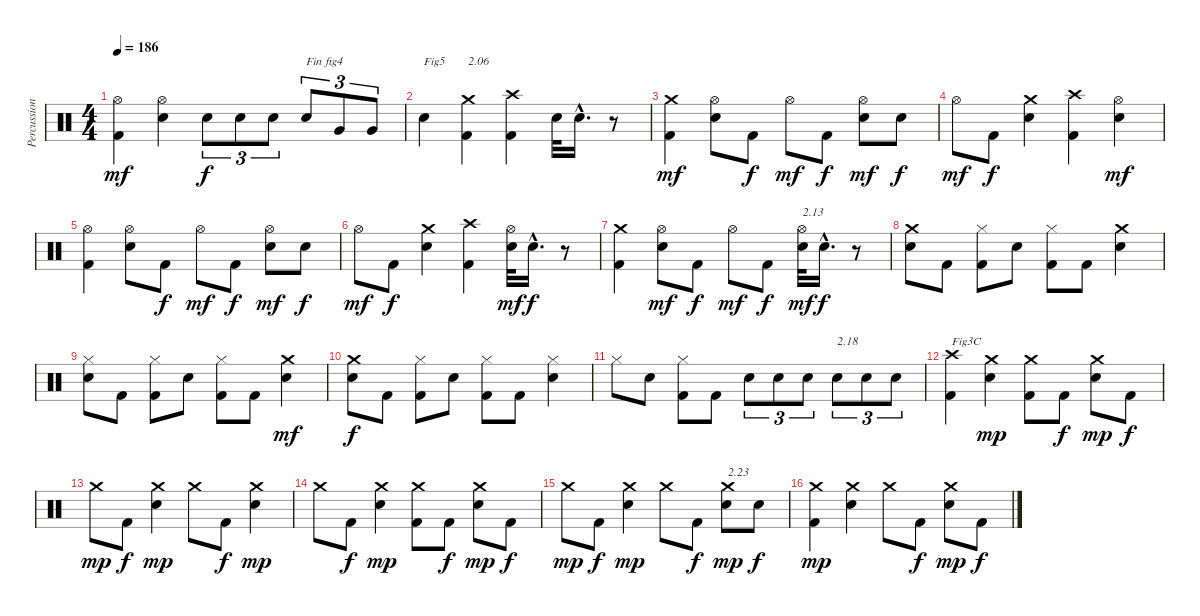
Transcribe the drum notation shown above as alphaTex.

\track ("Percussions" "Percussion") {instrument percussion}
\staff {score}
\articulation defaults
\ts (4 4)
\tempo 186
\clef neutral
\ks c
("Kick (hit) 2" "Hi-Hat (open)").4{dy mf} ("Electric Snare (hit)" "Hi-Hat (open)").4 "Electric Snare (hit)".8{tu (3 2) dy f} "Electric Snare (hit)".8{tu (3 2)} "Electric Snare (hit)".8{tu (3 2)} "Electric Snare (hit)".8{tu (3 2) txt "Fin fig4"} "Very Low Tom (hit)".8{tu (3 2)} "Very Low Tom (hit)".8{tu (3 2)} |
"Electric Snare (hit)".4{txt "Fig5"} ("Kick (hit) 2" "Crash medium (hit)").4{txt "2.06"} ("Kick (hit) 2" "Crash high (hit)").4 "Electric Snare (hit)".32 "Electric Snare (hit)"{hac}.16{d} r.8 |
("Kick (hit) 2" "Crash medium (hit)").4{dy mf} ("Electric Snare (hit)" "Hi-Hat (open)").8 "Kick (hit) 2".8{dy f} "Hi-Hat (open)".8{dy mf} "Kick (hit) 2".8{dy f} ("Electric Snare (hit)" "Hi-Hat (open)").8{dy mf} "Electric Snare (hit)".8{dy f} |
"Hi-Hat (open)".8{dy mf} "Kick (hit) 2".8{dy f} ("Electric Snare (hit)" "Crash medium (hit)").4 ("Kick (hit) 2" "Crash high (hit)").4 ("Electric Snare (hit)" "Hi-Hat (open)").4{dy mf} |
("Kick (hit) 2" "Hi-Hat (open)").4 ("Electric Snare (hit)" "Hi-Hat (open)").8 "Kick (hit) 2".8{dy f} "Hi-Hat (open)".8{dy mf} "Kick (hit) 2".8{dy f} ("Electric Snare (hit)" "Hi-Hat (open)").8{dy mf} "Electric Snare (hit)".8{dy f} |
"Hi-Hat (open)".8{dy mf} "Kick (hit) 2".8{dy f} ("Electric Snare (hit)" "Crash medium (hit)").4 ("Kick (hit) 2" "Crash high (hit)").4 ("Electric Snare (hit)" "Hi-Hat (open)").32{dy mf} "Electric Snare (hit)"{hac}.16{d dy f} r.8 |
("Kick (hit) 2" "Crash medium (hit)").4 ("Electric Snare (hit)" "Hi-Hat (open)").8{dy mf} "Kick (hit) 2".8{dy f} "Hi-Hat (open)".8{dy mf} "Kick (hit) 2".8{dy f} ("Electric Snare (hit)" "Hi-Hat (open)").32{txt "2.13" dy mf} "Electric Snare (hit)"{hac}.16{d dy f} r.8 |
("Electric Snare (hit)" "Crash medium (hit)").8 "Kick (hit) 2".8 ("Kick (hit) 2" "Hi-Hat (closed)").8 "Electric Snare (hit)".8 ("Kick (hit) 2" "Hi-Hat (closed)").8 "Kick (hit) 2".8 ("Electric Snare (hit)" "Crash medium (hit)").4 |
("Electric Snare (hit)" "Hi-Hat (closed)").8 "Kick (hit) 2".8 ("Kick (hit) 2" "Hi-Hat (closed)").8 "Electric Snare (hit)".8 ("Kick (hit) 2" "Hi-Hat (closed)").8 "Kick (hit) 2".8 ("Electric Snare (hit)" "Crash medium (hit)").4{dy mf} |
("Electric Snare (hit)" "Crash medium (hit)").8{dy f} "Kick (hit) 2".8 ("Kick (hit) 2" "Hi-Hat (closed)").8 "Electric Snare (hit)".8 ("Kick (hit) 2" "Hi-Hat (closed)").8 "Kick (hit) 2".8 ("Electric Snare (hit)" "Hi-Hat (closed)").4 |
"Hi-Hat (closed)".8 "Electric Snare (hit)".8 ("Kick (hit) 2" "Hi-Hat (closed)").8 "Kick (hit) 2".8 "Electric Snare (hit)".8{tu (3 2)} "Electric Snare (hit)".8{tu (3 2)} "Electric Snare (hit)".8{tu (3 2)} "Electric Snare (hit)".8{tu (3 2) txt "2.18"} "Electric Snare (hit)".8{tu (3 2)} "Electric Snare (hit)".8{tu (3 2)} |
("Kick (hit) 2" "Crash high (hit)").4{txt "Fig3C"} ("Electric Snare (hit)" "Crash medium (hit)").4{dy mp} ("Kick (hit) 2" "Crash medium (hit)").8 "Kick (hit) 2".8{dy f} ("Electric Snare (hit)" "Crash medium (hit)").8{dy mp} "Kick (hit) 2".8{dy f} |
"Crash medium (hit)".8{dy mp} "Kick (hit) 2".8{dy f} ("Electric Snare (hit)" "Crash medium (hit)").4{dy mp} "Crash medium (hit)".8 "Kick (hit) 2".8{dy f} ("Electric Snare (hit)" "Crash medium (hit)").4{dy mp} |
"Crash medium (hit)".8 "Kick (hit) 2".8{dy f} ("Electric Snare (hit)" "Crash medium (hit)").4{dy mp} ("Kick (hit) 2" "Crash medium (hit)").8 "Kick (hit) 2".8{dy f} ("Electric Snare (hit)" "Crash medium (hit)").8{dy mp} "Kick (hit) 2".8{dy f} |
"Crash medium (hit)".8{dy mp} "Kick (hit) 2".8{dy f} ("Electric Snare (hit)" "Crash medium (hit)").4{dy mp} "Crash medium (hit)".8 "Kick (hit) 2".8{dy f} ("Electric Snare (hit)" "Crash medium (hit)").8{txt "2.23" dy mp} "Electric Snare (hit)".8{dy f} |
("Kick (hit) 2" "Crash medium (hit)").4{dy mp} ("Electric Snare (hit)" "Crash medium (hit)").4 "Crash medium (hit)".8 "Kick (hit) 2".8{dy f} ("Electric Snare (hit)" "Crash medium (hit)").8{dy mp} "Kick (hit) 2".8{dy f}
